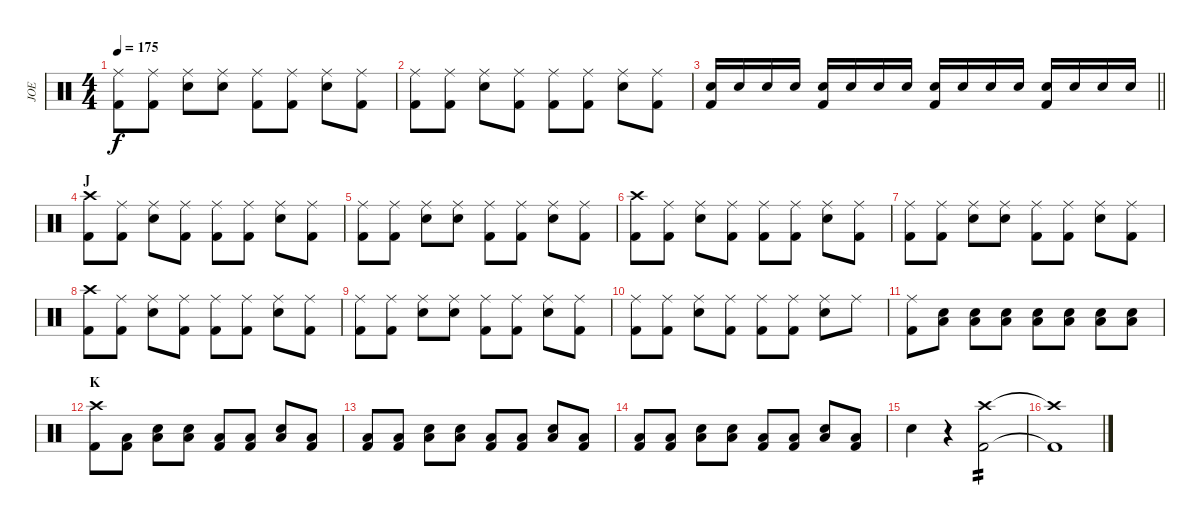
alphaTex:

\track ("JOE" "JOE") {instrument percussion}
\staff {score}
\articulation defaults
\ts (4 4)
\tempo 175
\clef neutral
\ks c
("Ride (middle)" "Kick (hit) 2").8{dy f} ("Ride (middle)" "Kick (hit) 2").8 ("Ride (middle)" "Snare (hit) 2").8 ("Ride (middle)" "Snare (hit) 2").8 ("Ride (middle)" "Kick (hit) 2").8 ("Ride (middle)" "Kick (hit) 2").8 ("Ride (middle)" "Snare (hit) 2").8 ("Ride (middle)" "Kick (hit) 2").8 |
("Ride (middle)" "Kick (hit) 2").8 ("Ride (middle)" "Kick (hit) 2").8 ("Ride (middle)" "Snare (hit) 2").8 ("Ride (middle)" "Kick (hit) 2").8 ("Ride (middle)" "Kick (hit) 2").8 ("Ride (middle)" "Kick (hit) 2").8 ("Ride (middle)" "Snare (hit) 2").8 ("Ride (middle)" "Kick (hit) 2").8 |
\barLineRight lightlight
("Snare (hit) 2" "Kick (hit) 2").16 "Snare (hit) 2".16 "Snare (hit) 2".16 "Snare (hit) 2".16 ("Snare (hit) 2" "Kick (hit) 2").16 "Snare (hit) 2".16 "Snare (hit) 2".16 "Snare (hit) 2".16 ("Snare (hit) 2" "Kick (hit) 2").16 "Snare (hit) 2".16 "Snare (hit) 2".16 "Snare (hit) 2".16 ("Snare (hit) 2" "Kick (hit) 2").16 "Snare (hit) 2".16 "Snare (hit) 2".16 "Snare (hit) 2".16 |
\section ("" "J")
("Crash high (hit)" "Kick (hit) 2").8 ("Ride (middle)" "Kick (hit) 2").8 ("Ride (middle)" "Snare (hit) 2").8 ("Ride (middle)" "Kick (hit) 2").8 ("Ride (middle)" "Kick (hit) 2").8 ("Ride (middle)" "Kick (hit) 2").8 ("Ride (middle)" "Snare (hit) 2").8 ("Ride (middle)" "Kick (hit) 2").8 |
("Ride (middle)" "Kick (hit) 2").8 ("Ride (middle)" "Kick (hit) 2").8 ("Ride (middle)" "Snare (hit) 2").8 ("Ride (middle)" "Snare (hit) 2").8 ("Ride (middle)" "Kick (hit) 2").8 ("Ride (middle)" "Kick (hit) 2").8 ("Ride (middle)" "Snare (hit) 2").8 ("Ride (middle)" "Kick (hit) 2").8 |
("Crash high (hit)" "Kick (hit) 2").8 ("Ride (middle)" "Kick (hit) 2").8 ("Ride (middle)" "Snare (hit) 2").8 ("Ride (middle)" "Kick (hit) 2").8 ("Ride (middle)" "Kick (hit) 2").8 ("Ride (middle)" "Kick (hit) 2").8 ("Ride (middle)" "Snare (hit) 2").8 ("Ride (middle)" "Kick (hit) 2").8 |
("Ride (middle)" "Kick (hit) 2").8 ("Ride (middle)" "Kick (hit) 2").8 ("Ride (middle)" "Snare (hit) 2").8 ("Ride (middle)" "Snare (hit) 2").8 ("Ride (middle)" "Kick (hit) 2").8 ("Ride (middle)" "Kick (hit) 2").8 ("Ride (middle)" "Snare (hit) 2").8 ("Ride (middle)" "Kick (hit) 2").8 |
("Crash high (hit)" "Kick (hit) 2").8 ("Ride (middle)" "Kick (hit) 2").8 ("Ride (middle)" "Snare (hit) 2").8 ("Ride (middle)" "Kick (hit) 2").8 ("Ride (middle)" "Kick (hit) 2").8 ("Ride (middle)" "Kick (hit) 2").8 ("Ride (middle)" "Snare (hit) 2").8 ("Ride (middle)" "Kick (hit) 2").8 |
("Ride (middle)" "Kick (hit) 2").8 ("Ride (middle)" "Kick (hit) 2").8 ("Ride (middle)" "Snare (hit) 2").8 ("Ride (middle)" "Snare (hit) 2").8 ("Ride (middle)" "Kick (hit) 2").8 ("Ride (middle)" "Kick (hit) 2").8 ("Ride (middle)" "Snare (hit) 2").8 ("Ride (middle)" "Kick (hit) 2").8 |
("Ride (middle)" "Kick (hit) 2").8 ("Ride (middle)" "Kick (hit) 2").8 ("Ride (middle)" "Snare (hit) 2").8 ("Ride (middle)" "Kick (hit) 2").8 ("Ride (middle)" "Kick (hit) 2").8 ("Ride (middle)" "Kick (hit) 2").8 ("Ride (middle)" "Snare (hit) 2").8 "Ride (middle)".8 |
("Ride (middle)" "Kick (hit) 2").8 ("Low Floor Tom (hit)" "Snare (hit) 2").8 ("Low Floor Tom (hit)" "Snare (hit) 2").8 ("Low Floor Tom (hit)" "Snare (hit) 2").8 ("Low Floor Tom (hit)" "Snare (hit) 2").8 ("Low Floor Tom (hit)" "Snare (hit) 2").8 ("Low Floor Tom (hit)" "Snare (hit) 2").8 ("Low Floor Tom (hit)" "Snare (hit) 2").8 |
\section ("" "K")
("Crash high (hit)" "Kick (hit) 2").8 ("Low Floor Tom (hit)" "Kick (hit) 2").8 ("Low Floor Tom (hit)" "Snare (hit) 2").8 ("Low Floor Tom (hit)" "Snare (hit) 2").8 ("Low Floor Tom (hit)" "Kick (hit) 2").8 ("Low Floor Tom (hit)" "Kick (hit) 2").8 ("Low Floor Tom (hit)" "Snare (hit) 2").8 ("Low Floor Tom (hit)" "Kick (hit) 2").8 |
("Low Floor Tom (hit)" "Kick (hit) 2").8 ("Low Floor Tom (hit)" "Kick (hit) 2").8 ("Low Floor Tom (hit)" "Snare (hit) 2").8 ("Low Floor Tom (hit)" "Snare (hit) 2").8 ("Low Floor Tom (hit)" "Kick (hit) 2").8 ("Low Floor Tom (hit)" "Kick (hit) 2").8 ("Low Floor Tom (hit)" "Snare (hit) 2").8 ("Low Floor Tom (hit)" "Kick (hit) 2").8 |
("Low Floor Tom (hit)" "Kick (hit) 2").8 ("Low Floor Tom (hit)" "Kick (hit) 2").8 ("Low Floor Tom (hit)" "Snare (hit) 2").8 ("Low Floor Tom (hit)" "Snare (hit) 2").8 ("Low Floor Tom (hit)" "Kick (hit) 2").8 ("Low Floor Tom (hit)" "Kick (hit) 2").8 ("Low Floor Tom (hit)" "Snare (hit) 2").8 ("Low Floor Tom (hit)" "Kick (hit) 2").8 |
"Snare (hit) 2".4 r.4 ("Crash high (hit)" "Kick (hit) 2").2{tp 2} |
("Crash high (hit)"{t} "Kick (hit) 2"{t}).1
